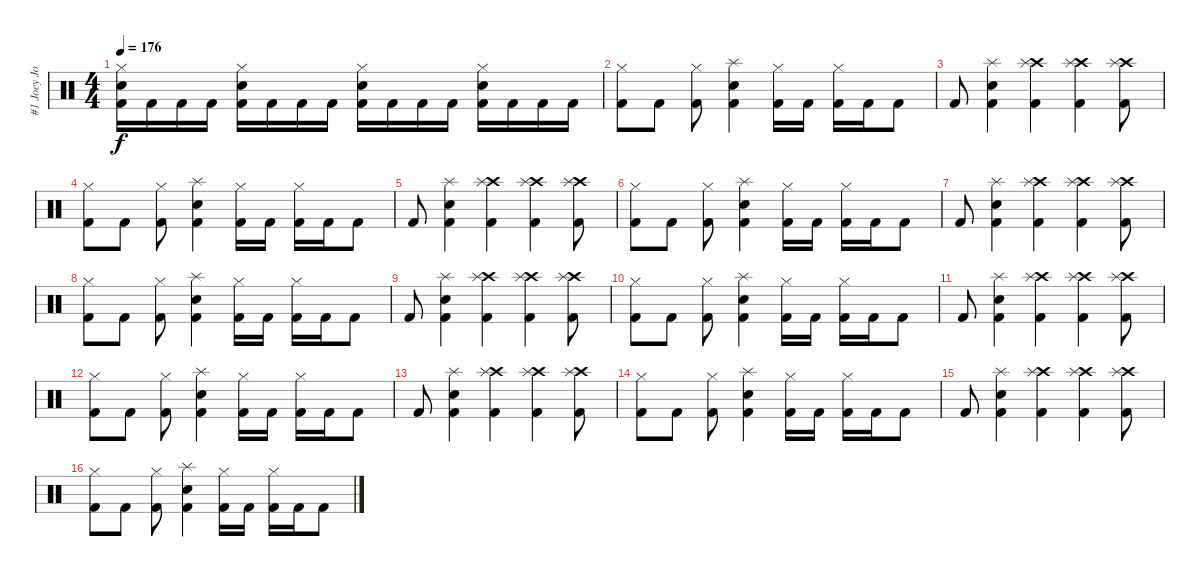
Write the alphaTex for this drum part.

\track ("#1 Joey Jordison - Drums" "#1 Joey Jo") {instrument percussion}
\staff {score}
\articulation defaults
\ts (4 4)
\tempo 176
\clef neutral
\ks c
("Hi-Hat (closed)" "Snare (hit) 2" "Kick (hit) 2").16{dy f} "Kick (hit) 2".16 "Kick (hit) 2".16 "Kick (hit) 2".16 ("Hi-Hat (closed)" "Snare (hit) 2" "Kick (hit) 2").16 "Kick (hit) 2".16 "Kick (hit) 2".16 "Kick (hit) 2".16 ("Hi-Hat (closed)" "Snare (hit) 2" "Kick (hit) 2").16 "Kick (hit) 2".16 "Kick (hit) 2".16 "Kick (hit) 2".16 ("Hi-Hat (closed)" "Snare (hit) 2" "Kick (hit) 2").16 "Kick (hit) 2".16 "Kick (hit) 2".16 "Kick (hit) 2".16 |
("Hi-Hat (closed)" "Kick (hit) 2").8 "Kick (hit) 2".8 ("Hi-Hat (closed)" "Kick (hit) 2").8 ("Splash (hit)" "Snare (hit) 2" "Kick (hit) 2").4 ("Hi-Hat (closed)" "Kick (hit) 2").16 "Kick (hit) 2".16 ("Hi-Hat (closed)" "Kick (hit) 2").16 "Kick (hit) 2".16 "Kick (hit) 2".8 |
"Kick (hit) 2".8 ("Splash (hit)" "Snare (hit) 2" "Kick (hit) 2").4 ("Crash high (hit)" "Splash (hit)" "Kick (hit) 2").4 ("Crash high (hit)" "Splash (hit)" "Kick (hit) 2").4 ("Crash high (hit)" "Splash (hit)" "Kick (hit) 2").8 |
("Hi-Hat (closed)" "Kick (hit) 2").8 "Kick (hit) 2".8 ("Hi-Hat (closed)" "Kick (hit) 2").8 ("Splash (hit)" "Snare (hit) 2" "Kick (hit) 2").4 ("Hi-Hat (closed)" "Kick (hit) 2").16 "Kick (hit) 2".16 ("Hi-Hat (closed)" "Kick (hit) 2").16 "Kick (hit) 2".16 "Kick (hit) 2".8 |
"Kick (hit) 2".8 ("Splash (hit)" "Snare (hit) 2" "Kick (hit) 2").4 ("Crash high (hit)" "Splash (hit)" "Kick (hit) 2").4 ("Crash high (hit)" "Splash (hit)" "Kick (hit) 2").4 ("Crash high (hit)" "Splash (hit)" "Kick (hit) 2").8 |
("Hi-Hat (closed)" "Kick (hit) 2").8 "Kick (hit) 2".8 ("Hi-Hat (closed)" "Kick (hit) 2").8 ("Splash (hit)" "Snare (hit) 2" "Kick (hit) 2").4 ("Hi-Hat (closed)" "Kick (hit) 2").16 "Kick (hit) 2".16 ("Hi-Hat (closed)" "Kick (hit) 2").16 "Kick (hit) 2".16 "Kick (hit) 2".8 |
"Kick (hit) 2".8 ("Splash (hit)" "Snare (hit) 2" "Kick (hit) 2").4 ("Crash high (hit)" "Splash (hit)" "Kick (hit) 2").4 ("Crash high (hit)" "Splash (hit)" "Kick (hit) 2").4 ("Crash high (hit)" "Splash (hit)" "Kick (hit) 2").8 |
("Hi-Hat (closed)" "Kick (hit) 2").8 "Kick (hit) 2".8 ("Hi-Hat (closed)" "Kick (hit) 2").8 ("Splash (hit)" "Snare (hit) 2" "Kick (hit) 2").4 ("Hi-Hat (closed)" "Kick (hit) 2").16 "Kick (hit) 2".16 ("Hi-Hat (closed)" "Kick (hit) 2").16 "Kick (hit) 2".16 "Kick (hit) 2".8 |
"Kick (hit) 2".8 ("Splash (hit)" "Snare (hit) 2" "Kick (hit) 2").4 ("Crash high (hit)" "Splash (hit)" "Kick (hit) 2").4 ("Crash high (hit)" "Splash (hit)" "Kick (hit) 2").4 ("Crash high (hit)" "Splash (hit)" "Kick (hit) 2").8 |
("Hi-Hat (closed)" "Kick (hit) 2").8 "Kick (hit) 2".8 ("Hi-Hat (closed)" "Kick (hit) 2").8 ("Splash (hit)" "Snare (hit) 2" "Kick (hit) 2").4 ("Hi-Hat (closed)" "Kick (hit) 2").16 "Kick (hit) 2".16 ("Hi-Hat (closed)" "Kick (hit) 2").16 "Kick (hit) 2".16 "Kick (hit) 2".8 |
"Kick (hit) 2".8 ("Splash (hit)" "Snare (hit) 2" "Kick (hit) 2").4 ("Crash high (hit)" "Splash (hit)" "Kick (hit) 2").4 ("Crash high (hit)" "Splash (hit)" "Kick (hit) 2").4 ("Crash high (hit)" "Splash (hit)" "Kick (hit) 2").8 |
("Hi-Hat (closed)" "Kick (hit) 2").8 "Kick (hit) 2".8 ("Hi-Hat (closed)" "Kick (hit) 2").8 ("Splash (hit)" "Snare (hit) 2" "Kick (hit) 2").4 ("Hi-Hat (closed)" "Kick (hit) 2").16 "Kick (hit) 2".16 ("Hi-Hat (closed)" "Kick (hit) 2").16 "Kick (hit) 2".16 "Kick (hit) 2".8 |
"Kick (hit) 2".8 ("Splash (hit)" "Snare (hit) 2" "Kick (hit) 2").4 ("Crash high (hit)" "Splash (hit)" "Kick (hit) 2").4 ("Crash high (hit)" "Splash (hit)" "Kick (hit) 2").4 ("Crash high (hit)" "Splash (hit)" "Kick (hit) 2").8 |
("Hi-Hat (closed)" "Kick (hit) 2").8 "Kick (hit) 2".8 ("Hi-Hat (closed)" "Kick (hit) 2").8 ("Splash (hit)" "Snare (hit) 2" "Kick (hit) 2").4 ("Hi-Hat (closed)" "Kick (hit) 2").16 "Kick (hit) 2".16 ("Hi-Hat (closed)" "Kick (hit) 2").16 "Kick (hit) 2".16 "Kick (hit) 2".8 |
"Kick (hit) 2".8 ("Splash (hit)" "Snare (hit) 2" "Kick (hit) 2").4 ("Crash high (hit)" "Splash (hit)" "Kick (hit) 2").4 ("Crash high (hit)" "Splash (hit)" "Kick (hit) 2").4 ("Crash high (hit)" "Splash (hit)" "Kick (hit) 2").8 |
("Hi-Hat (closed)" "Kick (hit) 2").8 "Kick (hit) 2".8 ("Hi-Hat (closed)" "Kick (hit) 2").8 ("Splash (hit)" "Snare (hit) 2" "Kick (hit) 2").4 ("Hi-Hat (closed)" "Kick (hit) 2").16 "Kick (hit) 2".16 ("Hi-Hat (closed)" "Kick (hit) 2").16 "Kick (hit) 2".16 "Kick (hit) 2".8
